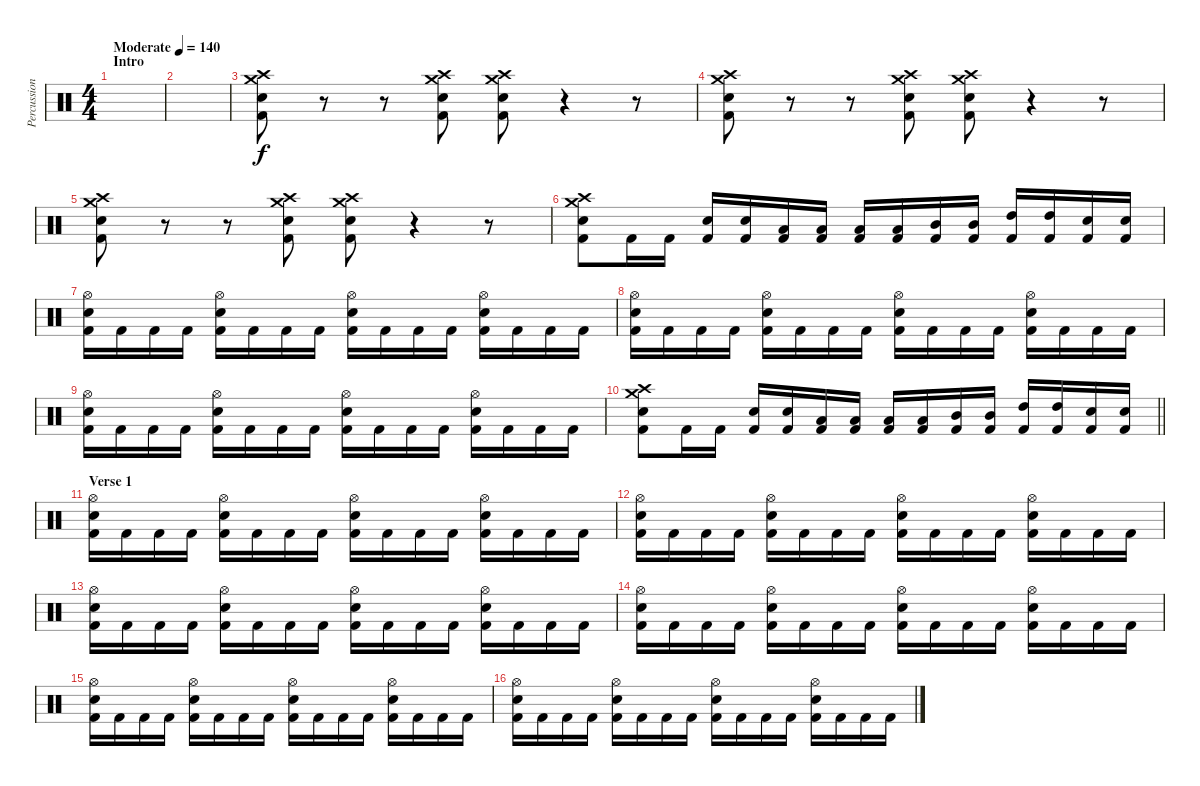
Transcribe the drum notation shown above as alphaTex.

\track ("Percussioni" "Percussion") {instrument percussion}
\staff {score}
\articulation defaults
\ts (4 4)
\section ("" "Intro")
\tempo (140 "Moderate")
\clef neutral
\ks c
|
|
("Crash high (hit)" "Crash medium (hit)" "Electric Snare (hit)" "Kick (hit) 2").8 r.8 r.8 ("Crash high (hit)" "Crash medium (hit)" "Electric Snare (hit)" "Kick (hit) 2").8 ("Crash high (hit)" "Crash medium (hit)" "Electric Snare (hit)" "Kick (hit) 2").8 r.4 r.8 |
("Crash high (hit)" "Crash medium (hit)" "Electric Snare (hit)" "Kick (hit) 2").8 r.8 r.8 ("Crash high (hit)" "Crash medium (hit)" "Electric Snare (hit)" "Kick (hit) 2").8 ("Crash high (hit)" "Crash medium (hit)" "Electric Snare (hit)" "Kick (hit) 2").8 r.4 r.8 |
("Crash high (hit)" "Crash medium (hit)" "Electric Snare (hit)" "Kick (hit) 2").8 r.8 r.8 ("Crash high (hit)" "Crash medium (hit)" "Electric Snare (hit)" "Kick (hit) 2").8 ("Crash high (hit)" "Crash medium (hit)" "Electric Snare (hit)" "Kick (hit) 2").8 r.4 r.8 |
("Crash high (hit)" "Crash medium (hit)" "Electric Snare (hit)" "Kick (hit) 2").8 "Kick (hit) 2".16 "Kick (hit) 2".16 ("Electric Snare (hit)" "Kick (hit) 2").16 ("Electric Snare (hit)" "Kick (hit) 2").16 ("Low Floor Tom (hit)" "Kick (hit) 2").16 ("Low Floor Tom (hit)" "Kick (hit) 2").16 ("Low Tom (hit)" "Kick (hit) 2").16 ("Low Tom (hit)" "Kick (hit) 2").16 ("Mid Tom (hit)" "Kick (hit) 2").16 ("Mid Tom (hit)" "Kick (hit) 2").16 ("High Tom (hit)" "Kick (hit) 2").16 ("High Tom (hit)" "Kick (hit) 2").16 ("Electric Snare (hit)" "Kick (hit) 2").16 ("Electric Snare (hit)" "Kick (hit) 2").16 |
("Hi-Hat (open)" "Electric Snare (hit)" "Kick (hit) 2").16 "Kick (hit) 2".16 "Kick (hit) 2".16 "Kick (hit) 2".16 ("Hi-Hat (open)" "Electric Snare (hit)" "Kick (hit) 2").16 "Kick (hit) 2".16 "Kick (hit) 2".16 "Kick (hit) 2".16 ("Hi-Hat (open)" "Electric Snare (hit)" "Kick (hit) 2").16 "Kick (hit) 2".16 "Kick (hit) 2".16 "Kick (hit) 2".16 ("Hi-Hat (open)" "Electric Snare (hit)" "Kick (hit) 2").16 "Kick (hit) 2".16 "Kick (hit) 2".16 "Kick (hit) 2".16 |
("Hi-Hat (open)" "Electric Snare (hit)" "Kick (hit) 2").16 "Kick (hit) 2".16 "Kick (hit) 2".16 "Kick (hit) 2".16 ("Hi-Hat (open)" "Electric Snare (hit)" "Kick (hit) 2").16 "Kick (hit) 2".16 "Kick (hit) 2".16 "Kick (hit) 2".16 ("Hi-Hat (open)" "Electric Snare (hit)" "Kick (hit) 2").16 "Kick (hit) 2".16 "Kick (hit) 2".16 "Kick (hit) 2".16 ("Hi-Hat (open)" "Electric Snare (hit)" "Kick (hit) 2").16 "Kick (hit) 2".16 "Kick (hit) 2".16 "Kick (hit) 2".16 |
("Hi-Hat (open)" "Electric Snare (hit)" "Kick (hit) 2").16 "Kick (hit) 2".16 "Kick (hit) 2".16 "Kick (hit) 2".16 ("Hi-Hat (open)" "Electric Snare (hit)" "Kick (hit) 2").16 "Kick (hit) 2".16 "Kick (hit) 2".16 "Kick (hit) 2".16 ("Hi-Hat (open)" "Electric Snare (hit)" "Kick (hit) 2").16 "Kick (hit) 2".16 "Kick (hit) 2".16 "Kick (hit) 2".16 ("Hi-Hat (open)" "Electric Snare (hit)" "Kick (hit) 2").16 "Kick (hit) 2".16 "Kick (hit) 2".16 "Kick (hit) 2".16 |
\barLineRight lightlight
("Crash high (hit)" "Crash medium (hit)" "Electric Snare (hit)" "Kick (hit) 2").8 "Kick (hit) 2".16 "Kick (hit) 2".16 ("Electric Snare (hit)" "Kick (hit) 2").16 ("Electric Snare (hit)" "Kick (hit) 2").16 ("Low Floor Tom (hit)" "Kick (hit) 2").16 ("Low Floor Tom (hit)" "Kick (hit) 2").16 ("Low Tom (hit)" "Kick (hit) 2").16 ("Low Tom (hit)" "Kick (hit) 2").16 ("Mid Tom (hit)" "Kick (hit) 2").16 ("Mid Tom (hit)" "Kick (hit) 2").16 ("High Tom (hit)" "Kick (hit) 2").16 ("High Tom (hit)" "Kick (hit) 2").16 ("Electric Snare (hit)" "Kick (hit) 2").16 ("Electric Snare (hit)" "Kick (hit) 2").16 |
\section ("" "Verse 1")
("Hi-Hat (open)" "Electric Snare (hit)" "Kick (hit) 2").16 "Kick (hit) 2".16 "Kick (hit) 2".16 "Kick (hit) 2".16 ("Hi-Hat (open)" "Electric Snare (hit)" "Kick (hit) 2").16 "Kick (hit) 2".16 "Kick (hit) 2".16 "Kick (hit) 2".16 ("Hi-Hat (open)" "Electric Snare (hit)" "Kick (hit) 2").16 "Kick (hit) 2".16 "Kick (hit) 2".16 "Kick (hit) 2".16 ("Hi-Hat (open)" "Electric Snare (hit)" "Kick (hit) 2").16 "Kick (hit) 2".16 "Kick (hit) 2".16 "Kick (hit) 2".16 |
("Hi-Hat (open)" "Electric Snare (hit)" "Kick (hit) 2").16 "Kick (hit) 2".16 "Kick (hit) 2".16 "Kick (hit) 2".16 ("Hi-Hat (open)" "Electric Snare (hit)" "Kick (hit) 2").16 "Kick (hit) 2".16 "Kick (hit) 2".16 "Kick (hit) 2".16 ("Hi-Hat (open)" "Electric Snare (hit)" "Kick (hit) 2").16 "Kick (hit) 2".16 "Kick (hit) 2".16 "Kick (hit) 2".16 ("Hi-Hat (open)" "Electric Snare (hit)" "Kick (hit) 2").16 "Kick (hit) 2".16 "Kick (hit) 2".16 "Kick (hit) 2".16 |
("Hi-Hat (open)" "Electric Snare (hit)" "Kick (hit) 2").16 "Kick (hit) 2".16 "Kick (hit) 2".16 "Kick (hit) 2".16 ("Hi-Hat (open)" "Electric Snare (hit)" "Kick (hit) 2").16 "Kick (hit) 2".16 "Kick (hit) 2".16 "Kick (hit) 2".16 ("Hi-Hat (open)" "Electric Snare (hit)" "Kick (hit) 2").16 "Kick (hit) 2".16 "Kick (hit) 2".16 "Kick (hit) 2".16 ("Hi-Hat (open)" "Electric Snare (hit)" "Kick (hit) 2").16 "Kick (hit) 2".16 "Kick (hit) 2".16 "Kick (hit) 2".16 |
("Hi-Hat (open)" "Electric Snare (hit)" "Kick (hit) 2").16 "Kick (hit) 2".16 "Kick (hit) 2".16 "Kick (hit) 2".16 ("Hi-Hat (open)" "Electric Snare (hit)" "Kick (hit) 2").16 "Kick (hit) 2".16 "Kick (hit) 2".16 "Kick (hit) 2".16 ("Hi-Hat (open)" "Electric Snare (hit)" "Kick (hit) 2").16 "Kick (hit) 2".16 "Kick (hit) 2".16 "Kick (hit) 2".16 ("Hi-Hat (open)" "Electric Snare (hit)" "Kick (hit) 2").16 "Kick (hit) 2".16 "Kick (hit) 2".16 "Kick (hit) 2".16 |
("Hi-Hat (open)" "Electric Snare (hit)" "Kick (hit) 2").16 "Kick (hit) 2".16 "Kick (hit) 2".16 "Kick (hit) 2".16 ("Hi-Hat (open)" "Electric Snare (hit)" "Kick (hit) 2").16 "Kick (hit) 2".16 "Kick (hit) 2".16 "Kick (hit) 2".16 ("Hi-Hat (open)" "Electric Snare (hit)" "Kick (hit) 2").16 "Kick (hit) 2".16 "Kick (hit) 2".16 "Kick (hit) 2".16 ("Hi-Hat (open)" "Electric Snare (hit)" "Kick (hit) 2").16 "Kick (hit) 2".16 "Kick (hit) 2".16 "Kick (hit) 2".16 |
("Hi-Hat (open)" "Electric Snare (hit)" "Kick (hit) 2").16 "Kick (hit) 2".16 "Kick (hit) 2".16 "Kick (hit) 2".16 ("Hi-Hat (open)" "Electric Snare (hit)" "Kick (hit) 2").16 "Kick (hit) 2".16 "Kick (hit) 2".16 "Kick (hit) 2".16 ("Hi-Hat (open)" "Electric Snare (hit)" "Kick (hit) 2").16 "Kick (hit) 2".16 "Kick (hit) 2".16 "Kick (hit) 2".16 ("Hi-Hat (open)" "Electric Snare (hit)" "Kick (hit) 2").16 "Kick (hit) 2".16 "Kick (hit) 2".16 "Kick (hit) 2".16
